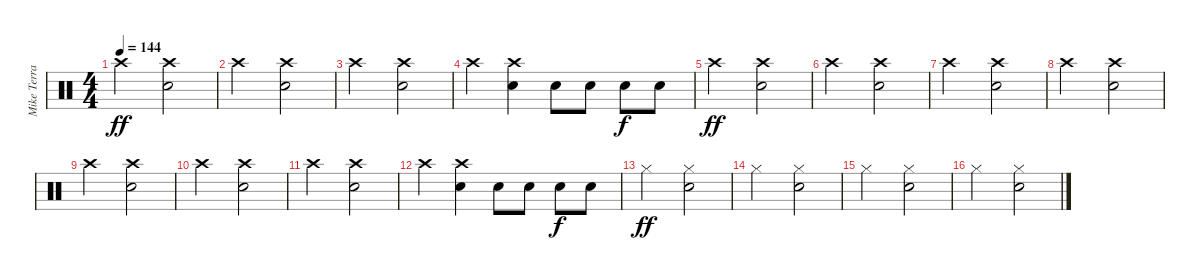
\track ("Mike Terrana" "Mike Terra") {instrument percussion}
\staff {score}
\articulation defaults
\ts (4 4)
\tempo 144
\clef neutral
\ks c "Crash high (hit)".2{dy ff}
("Snare (hit) 2" "Crash high (hit)").2 |
"Crash high (hit)".2 ("Snare (hit) 2" "Crash high (hit)").2 |
"Crash high (hit)".2 ("Snare (hit) 2" "Crash high (hit)").2 |
"Crash high (hit)".4 ("Snare (hit) 2" "Crash high (hit)").4 "Snare (hit) 2".8 "Snare (hit) 2".8 "Snare (hit) 2".8{dy f} "Snare (hit) 2".8 |
"Crash high (hit)".2{dy ff} ("Snare (hit) 2" "Crash high (hit)").2 |
"Crash high (hit)".2 ("Snare (hit) 2" "Crash high (hit)").2 |
"Crash high (hit)".2 ("Snare (hit) 2" "Crash high (hit)").2 |
"Crash high (hit)".2 ("Snare (hit) 2" "Crash high (hit)").2 |
"Crash high (hit)".2 ("Snare (hit) 2" "Crash high (hit)").2 |
"Crash high (hit)".2 ("Snare (hit) 2" "Crash high (hit)").2 |
"Crash high (hit)".2 ("Snare (hit) 2" "Crash high (hit)").2 |
"Crash high (hit)".4 ("Snare (hit) 2" "Crash high (hit)").4 "Snare (hit) 2".8 "Snare (hit) 2".8 "Snare (hit) 2".8{dy f} "Snare (hit) 2".8 |
"Hi-Hat (closed)".2{dy ff} ("Snare (hit) 2" "Hi-Hat (closed)").2 |
"Hi-Hat (closed)".2 ("Snare (hit) 2" "Hi-Hat (closed)").2 |
"Hi-Hat (closed)".2 ("Snare (hit) 2" "Hi-Hat (closed)").2 |
"Hi-Hat (closed)".2 ("Snare (hit) 2" "Hi-Hat (closed)").2
